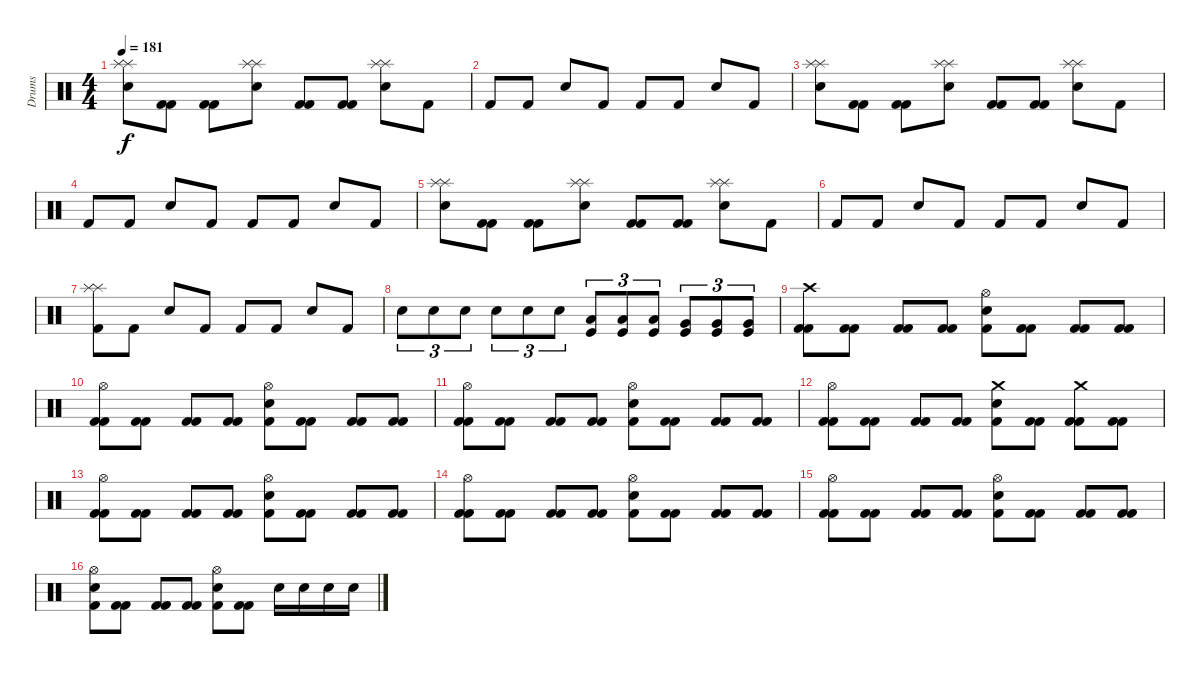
\track ("Drums" "Drums") {instrument percussion}
\staff {score}
\articulation defaults
\ts (4 4)
\tempo 181
\clef neutral
\ks c
("Splash (hit)" "Splash (hit)" "Electric Snare (hit)").8{dy f} ("Kick (hit) 2" "Kick (hit) 2").8 ("Kick (hit) 2" "Kick (hit) 2").8 ("Splash (hit)" "Splash (hit)" "Electric Snare (hit)").8 ("Kick (hit) 2" "Kick (hit) 2").8 ("Kick (hit) 2" "Kick (hit) 2").8 ("Splash (hit)" "Splash (hit)" "Electric Snare (hit)").8 "Kick (hit) 2".8 |
"Kick (hit) 2".8 "Kick (hit) 2".8 "Electric Snare (hit)".8 "Kick (hit) 2".8 "Kick (hit) 2".8 "Kick (hit) 2".8 "Electric Snare (hit)".8 "Kick (hit) 2".8 |
("Splash (hit)" "Splash (hit)" "Electric Snare (hit)").8 ("Kick (hit) 2" "Kick (hit) 2").8 ("Kick (hit) 2" "Kick (hit) 2").8 ("Splash (hit)" "Splash (hit)" "Electric Snare (hit)").8 ("Kick (hit) 2" "Kick (hit) 2").8 ("Kick (hit) 2" "Kick (hit) 2").8 ("Splash (hit)" "Splash (hit)" "Electric Snare (hit)").8 "Kick (hit) 2".8 |
"Kick (hit) 2".8 "Kick (hit) 2".8 "Electric Snare (hit)".8 "Kick (hit) 2".8 "Kick (hit) 2".8 "Kick (hit) 2".8 "Electric Snare (hit)".8 "Kick (hit) 2".8 |
("Splash (hit)" "Splash (hit)" "Electric Snare (hit)").8 ("Kick (hit) 2" "Kick (hit) 2").8 ("Kick (hit) 2" "Kick (hit) 2").8 ("Splash (hit)" "Splash (hit)" "Electric Snare (hit)").8 ("Kick (hit) 2" "Kick (hit) 2").8 ("Kick (hit) 2" "Kick (hit) 2").8 ("Splash (hit)" "Splash (hit)" "Electric Snare (hit)").8 "Kick (hit) 2".8 |
"Kick (hit) 2".8 "Kick (hit) 2".8 "Electric Snare (hit)".8 "Kick (hit) 2".8 "Kick (hit) 2".8 "Kick (hit) 2".8 "Electric Snare (hit)".8 "Kick (hit) 2".8 |
("Splash (hit)" "Splash (hit)" "Kick (hit) 2").8 "Kick (hit) 2".8 "Electric Snare (hit)".8 "Kick (hit) 2".8 "Kick (hit) 2".8 "Kick (hit) 2".8 "Electric Snare (hit)".8 "Kick (hit) 2".8 |
"Electric Snare (hit)".8{tu (3 2)} "Electric Snare (hit)".8{tu (3 2)} "Electric Snare (hit)".8{tu (3 2)} "Electric Snare (hit)".8{tu (3 2)} "Electric Snare (hit)".8{tu (3 2)} "Electric Snare (hit)".8{tu (3 2)} ("Low Tom (hit)" "Kick (hit)").8{tu (3 2)} ("Low Tom (hit)" "Kick (hit)").8{tu (3 2)} ("Low Tom (hit)" "Kick (hit)").8{tu (3 2)} ("Very Low Tom (hit)" "Kick (hit)").8{tu (3 2)} ("Very Low Tom (hit)" "Kick (hit)").8{tu (3 2)} ("Very Low Tom (hit)" "Kick (hit)").8{tu (3 2)} |
("Crash high (hit)" "Kick (hit) 2" "Kick (hit) 2").8 ("Kick (hit) 2" "Kick (hit) 2").8 ("Kick (hit) 2" "Kick (hit) 2").8 ("Kick (hit) 2" "Kick (hit) 2").8 ("Hi-Hat (open)" "Electric Snare (hit)" "Kick (hit) 2").8 ("Kick (hit) 2" "Kick (hit) 2").8 ("Kick (hit) 2" "Kick (hit) 2").8 ("Kick (hit) 2" "Kick (hit) 2").8 |
("Hi-Hat (open)" "Kick (hit) 2" "Kick (hit) 2").8 ("Kick (hit) 2" "Kick (hit) 2").8 ("Kick (hit) 2" "Kick (hit) 2").8 ("Kick (hit) 2" "Kick (hit) 2").8 ("Hi-Hat (open)" "Electric Snare (hit)" "Kick (hit) 2").8 ("Kick (hit) 2" "Kick (hit) 2").8 ("Kick (hit) 2" "Kick (hit) 2").8 ("Kick (hit) 2" "Kick (hit) 2").8 |
("Hi-Hat (open)" "Kick (hit) 2" "Kick (hit) 2").8 ("Kick (hit) 2" "Kick (hit) 2").8 ("Kick (hit) 2" "Kick (hit) 2").8 ("Kick (hit) 2" "Kick (hit) 2").8 ("Hi-Hat (open)" "Electric Snare (hit)" "Kick (hit) 2").8 ("Kick (hit) 2" "Kick (hit) 2").8 ("Kick (hit) 2" "Kick (hit) 2").8 ("Kick (hit) 2" "Kick (hit) 2").8 |
("Hi-Hat (open)" "Kick (hit) 2" "Kick (hit) 2").8 ("Kick (hit) 2" "Kick (hit) 2").8 ("Kick (hit) 2" "Kick (hit) 2").8 ("Kick (hit) 2" "Kick (hit) 2").8 ("Crash medium (hit)" "Electric Snare (hit)" "Kick (hit) 2").8 ("Kick (hit) 2" "Kick (hit) 2").8 ("Crash medium (hit)" "Kick (hit) 2" "Kick (hit) 2").8 ("Kick (hit) 2" "Kick (hit) 2").8 |
("Hi-Hat (open)" "Kick (hit) 2" "Kick (hit) 2").8 ("Kick (hit) 2" "Kick (hit) 2").8 ("Kick (hit) 2" "Kick (hit) 2").8 ("Kick (hit) 2" "Kick (hit) 2").8 ("Hi-Hat (open)" "Electric Snare (hit)" "Kick (hit) 2").8 ("Kick (hit) 2" "Kick (hit) 2").8 ("Kick (hit) 2" "Kick (hit) 2").8 ("Kick (hit) 2" "Kick (hit) 2").8 |
("Hi-Hat (open)" "Kick (hit) 2" "Kick (hit) 2").8 ("Kick (hit) 2" "Kick (hit) 2").8 ("Kick (hit) 2" "Kick (hit) 2").8 ("Kick (hit) 2" "Kick (hit) 2").8 ("Hi-Hat (open)" "Electric Snare (hit)" "Kick (hit) 2").8 ("Kick (hit) 2" "Kick (hit) 2").8 ("Kick (hit) 2" "Kick (hit) 2").8 ("Kick (hit) 2" "Kick (hit) 2").8 |
("Hi-Hat (open)" "Kick (hit) 2" "Kick (hit) 2").8 ("Kick (hit) 2" "Kick (hit) 2").8 ("Kick (hit) 2" "Kick (hit) 2").8 ("Kick (hit) 2" "Kick (hit) 2").8 ("Hi-Hat (open)" "Electric Snare (hit)" "Kick (hit) 2").8 ("Kick (hit) 2" "Kick (hit) 2").8 ("Kick (hit) 2" "Kick (hit) 2").8 ("Kick (hit) 2" "Kick (hit) 2").8 |
("Hi-Hat (open)" "Electric Snare (hit)" "Kick (hit) 2").8 ("Kick (hit) 2" "Kick (hit) 2").8 ("Kick (hit) 2" "Kick (hit) 2").8 ("Kick (hit) 2" "Kick (hit) 2").8 ("Hi-Hat (open)" "Electric Snare (hit)" "Kick (hit) 2").8 ("Kick (hit) 2" "Kick (hit) 2").8 "Electric Snare (hit)".16 "Electric Snare (hit)".16 "Electric Snare (hit)".16 "Electric Snare (hit)".16
